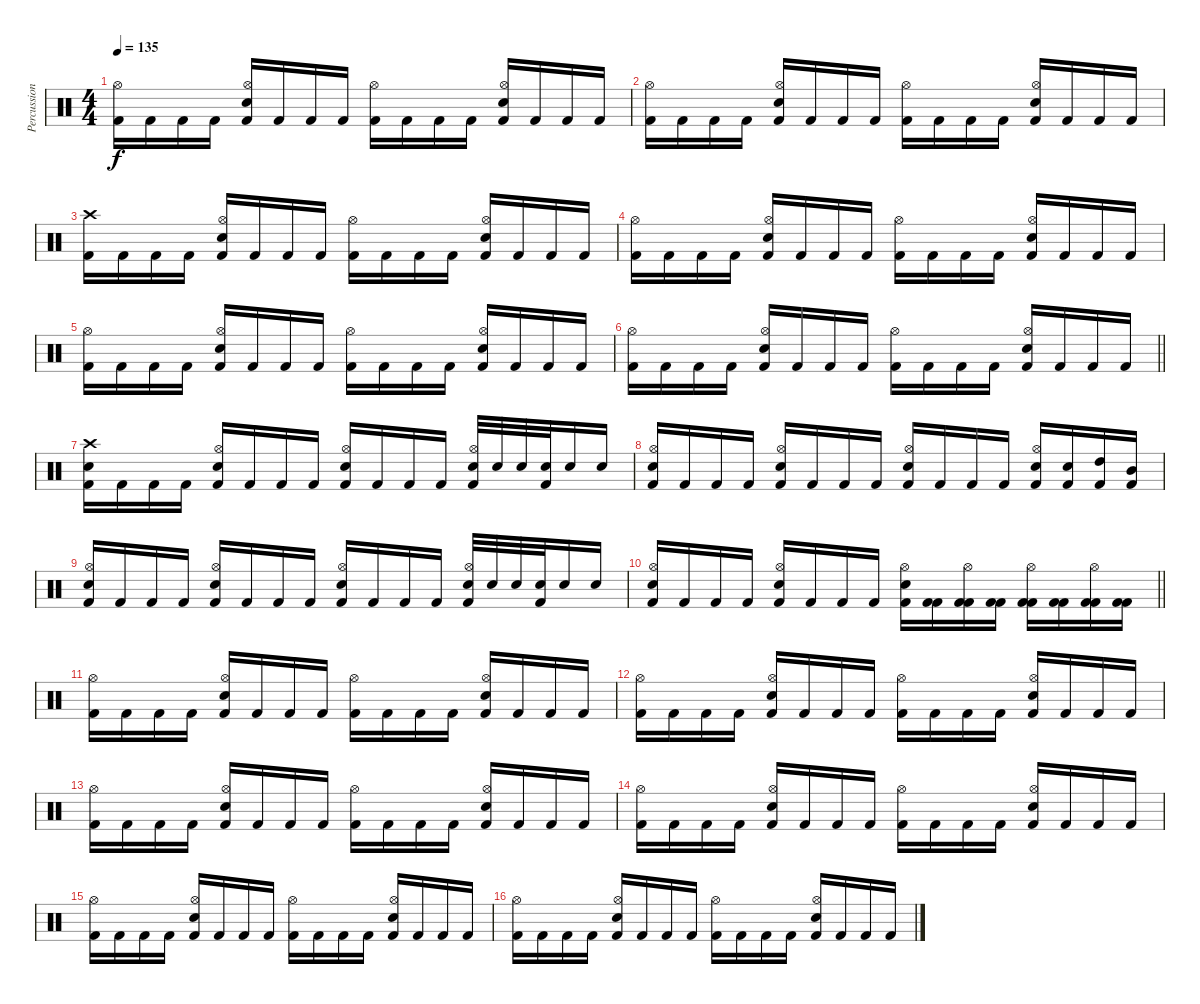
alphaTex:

\track ("Percussion" "Percussion") {instrument percussion}
\staff {score}
\articulation defaults
\ts (4 4)
\tempo 135
\clef neutral
\ks c
("Kick (hit) 2" "Hi-Hat (open)").16{dy f} "Kick (hit) 2".16 "Kick (hit) 2".16 "Kick (hit) 2".16 ("Kick (hit) 2" "Hi-Hat (open)" "Electric Snare (hit)").16 "Kick (hit) 2".16 "Kick (hit) 2".16 "Kick (hit) 2".16 ("Kick (hit) 2" "Hi-Hat (open)").16 "Kick (hit) 2".16 "Kick (hit) 2".16 "Kick (hit) 2".16 ("Kick (hit) 2" "Hi-Hat (open)" "Electric Snare (hit)").16 "Kick (hit) 2".16 "Kick (hit) 2".16 "Kick (hit) 2".16 |
("Kick (hit) 2" "Hi-Hat (open)").16 "Kick (hit) 2".16 "Kick (hit) 2".16 "Kick (hit) 2".16 ("Kick (hit) 2" "Hi-Hat (open)" "Electric Snare (hit)").16 "Kick (hit) 2".16 "Kick (hit) 2".16 "Kick (hit) 2".16 ("Kick (hit) 2" "Hi-Hat (open)").16 "Kick (hit) 2".16 "Kick (hit) 2".16 "Kick (hit) 2".16 ("Kick (hit) 2" "Hi-Hat (open)" "Electric Snare (hit)").16 "Kick (hit) 2".16 "Kick (hit) 2".16 "Kick (hit) 2".16 |
("Kick (hit) 2" "Crash high (hit)").16 "Kick (hit) 2".16 "Kick (hit) 2".16 "Kick (hit) 2".16 ("Kick (hit) 2" "Hi-Hat (open)" "Electric Snare (hit)").16 "Kick (hit) 2".16 "Kick (hit) 2".16 "Kick (hit) 2".16 ("Kick (hit) 2" "Hi-Hat (open)").16 "Kick (hit) 2".16 "Kick (hit) 2".16 "Kick (hit) 2".16 ("Kick (hit) 2" "Hi-Hat (open)" "Electric Snare (hit)").16 "Kick (hit) 2".16 "Kick (hit) 2".16 "Kick (hit) 2".16 |
("Kick (hit) 2" "Hi-Hat (open)").16 "Kick (hit) 2".16 "Kick (hit) 2".16 "Kick (hit) 2".16 ("Kick (hit) 2" "Hi-Hat (open)" "Electric Snare (hit)").16 "Kick (hit) 2".16 "Kick (hit) 2".16 "Kick (hit) 2".16 ("Kick (hit) 2" "Hi-Hat (open)").16 "Kick (hit) 2".16 "Kick (hit) 2".16 "Kick (hit) 2".16 ("Kick (hit) 2" "Hi-Hat (open)" "Electric Snare (hit)").16 "Kick (hit) 2".16 "Kick (hit) 2".16 "Kick (hit) 2".16 |
("Kick (hit) 2" "Hi-Hat (open)").16 "Kick (hit) 2".16 "Kick (hit) 2".16 "Kick (hit) 2".16 ("Kick (hit) 2" "Hi-Hat (open)" "Electric Snare (hit)").16 "Kick (hit) 2".16 "Kick (hit) 2".16 "Kick (hit) 2".16 ("Kick (hit) 2" "Hi-Hat (open)").16 "Kick (hit) 2".16 "Kick (hit) 2".16 "Kick (hit) 2".16 ("Kick (hit) 2" "Hi-Hat (open)" "Electric Snare (hit)").16 "Kick (hit) 2".16 "Kick (hit) 2".16 "Kick (hit) 2".16 |
\barLineRight lightlight
("Kick (hit) 2" "Hi-Hat (open)").16 "Kick (hit) 2".16 "Kick (hit) 2".16 "Kick (hit) 2".16 ("Kick (hit) 2" "Hi-Hat (open)" "Electric Snare (hit)").16 "Kick (hit) 2".16 "Kick (hit) 2".16 "Kick (hit) 2".16 ("Kick (hit) 2" "Hi-Hat (open)").16 "Kick (hit) 2".16 "Kick (hit) 2".16 "Kick (hit) 2".16 ("Kick (hit) 2" "Hi-Hat (open)" "Electric Snare (hit)").16 "Kick (hit) 2".16 "Kick (hit) 2".16 "Kick (hit) 2".16 |
("Kick (hit) 2" "Crash high (hit)" "Electric Snare (hit)").16 "Kick (hit) 2".16 "Kick (hit) 2".16 "Kick (hit) 2".16 ("Kick (hit) 2" "Hi-Hat (open)" "Electric Snare (hit)").16 "Kick (hit) 2".16 "Kick (hit) 2".16 "Kick (hit) 2".16 ("Kick (hit) 2" "Hi-Hat (open)" "Electric Snare (hit)").16 "Kick (hit) 2".16 "Kick (hit) 2".16 "Kick (hit) 2".16 ("Kick (hit) 2" "Hi-Hat (open)" "Electric Snare (hit)").32 "Electric Snare (hit)".32 "Electric Snare (hit)".32 ("Kick (hit) 2" "Electric Snare (hit)").32 "Electric Snare (hit)".16 "Electric Snare (hit)".16 |
("Kick (hit) 2" "Hi-Hat (open)" "Electric Snare (hit)").16 "Kick (hit) 2".16 "Kick (hit) 2".16 "Kick (hit) 2".16 ("Kick (hit) 2" "Hi-Hat (open)" "Electric Snare (hit)").16 "Kick (hit) 2".16 "Kick (hit) 2".16 "Kick (hit) 2".16 ("Kick (hit) 2" "Hi-Hat (open)" "Electric Snare (hit)").16 "Kick (hit) 2".16 "Kick (hit) 2".16 "Kick (hit) 2".16 ("Kick (hit) 2" "Hi-Hat (open)" "Electric Snare (hit)").16 ("Kick (hit) 2" "Electric Snare (hit)").16 ("Kick (hit) 2" "High Tom (hit)").16 ("Kick (hit) 2" "Mid Tom (hit)").16 |
("Kick (hit) 2" "Hi-Hat (open)" "Electric Snare (hit)").16 "Kick (hit) 2".16 "Kick (hit) 2".16 "Kick (hit) 2".16 ("Kick (hit) 2" "Hi-Hat (open)" "Electric Snare (hit)").16 "Kick (hit) 2".16 "Kick (hit) 2".16 "Kick (hit) 2".16 ("Kick (hit) 2" "Hi-Hat (open)" "Electric Snare (hit)").16 "Kick (hit) 2".16 "Kick (hit) 2".16 "Kick (hit) 2".16 ("Kick (hit) 2" "Hi-Hat (open)" "Electric Snare (hit)").32 "Electric Snare (hit)".32 "Electric Snare (hit)".32 ("Kick (hit) 2" "Electric Snare (hit)").32 "Electric Snare (hit)".16 "Electric Snare (hit)".16 |
\barLineRight lightlight
("Kick (hit) 2" "Hi-Hat (open)" "Electric Snare (hit)").16 "Kick (hit) 2".16 "Kick (hit) 2".16 "Kick (hit) 2".16 ("Kick (hit) 2" "Hi-Hat (open)" "Electric Snare (hit)").16 "Kick (hit) 2".16 "Kick (hit) 2".16 "Kick (hit) 2".16 ("Kick (hit) 2" "Hi-Hat (open)" "Electric Snare (hit)").16 ("Kick (hit) 2" "Kick (hit) 2").16 ("Kick (hit) 2" "Hi-Hat (open)" "Kick (hit) 2").16 ("Kick (hit) 2" "Kick (hit) 2").16 ("Kick (hit) 2" "Hi-Hat (open)" "Kick (hit) 2").16 ("Kick (hit) 2" "Kick (hit) 2").16 ("Kick (hit) 2" "Hi-Hat (open)" "Kick (hit) 2").16 ("Kick (hit) 2" "Kick (hit) 2").16 |
("Kick (hit) 2" "Hi-Hat (open)").16 "Kick (hit) 2".16 "Kick (hit) 2".16 "Kick (hit) 2".16 ("Kick (hit) 2" "Hi-Hat (open)" "Electric Snare (hit)").16 "Kick (hit) 2".16 "Kick (hit) 2".16 "Kick (hit) 2".16 ("Kick (hit) 2" "Hi-Hat (open)").16 "Kick (hit) 2".16 "Kick (hit) 2".16 "Kick (hit) 2".16 ("Kick (hit) 2" "Hi-Hat (open)" "Electric Snare (hit)").16 "Kick (hit) 2".16 "Kick (hit) 2".16 "Kick (hit) 2".16 |
("Kick (hit) 2" "Hi-Hat (open)").16 "Kick (hit) 2".16 "Kick (hit) 2".16 "Kick (hit) 2".16 ("Kick (hit) 2" "Hi-Hat (open)" "Electric Snare (hit)").16 "Kick (hit) 2".16 "Kick (hit) 2".16 "Kick (hit) 2".16 ("Kick (hit) 2" "Hi-Hat (open)").16 "Kick (hit) 2".16 "Kick (hit) 2".16 "Kick (hit) 2".16 ("Kick (hit) 2" "Hi-Hat (open)" "Electric Snare (hit)").16 "Kick (hit) 2".16 "Kick (hit) 2".16 "Kick (hit) 2".16 |
("Kick (hit) 2" "Hi-Hat (open)").16 "Kick (hit) 2".16 "Kick (hit) 2".16 "Kick (hit) 2".16 ("Kick (hit) 2" "Hi-Hat (open)" "Electric Snare (hit)").16 "Kick (hit) 2".16 "Kick (hit) 2".16 "Kick (hit) 2".16 ("Kick (hit) 2" "Hi-Hat (open)").16 "Kick (hit) 2".16 "Kick (hit) 2".16 "Kick (hit) 2".16 ("Kick (hit) 2" "Hi-Hat (open)" "Electric Snare (hit)").16 "Kick (hit) 2".16 "Kick (hit) 2".16 "Kick (hit) 2".16 |
("Kick (hit) 2" "Hi-Hat (open)").16 "Kick (hit) 2".16 "Kick (hit) 2".16 "Kick (hit) 2".16 ("Kick (hit) 2" "Hi-Hat (open)" "Electric Snare (hit)").16 "Kick (hit) 2".16 "Kick (hit) 2".16 "Kick (hit) 2".16 ("Kick (hit) 2" "Hi-Hat (open)").16 "Kick (hit) 2".16 "Kick (hit) 2".16 "Kick (hit) 2".16 ("Kick (hit) 2" "Hi-Hat (open)" "Electric Snare (hit)").16 "Kick (hit) 2".16 "Kick (hit) 2".16 "Kick (hit) 2".16 |
("Kick (hit) 2" "Hi-Hat (open)").16 "Kick (hit) 2".16 "Kick (hit) 2".16 "Kick (hit) 2".16 ("Kick (hit) 2" "Hi-Hat (open)" "Electric Snare (hit)").16 "Kick (hit) 2".16 "Kick (hit) 2".16 "Kick (hit) 2".16 ("Kick (hit) 2" "Hi-Hat (open)").16 "Kick (hit) 2".16 "Kick (hit) 2".16 "Kick (hit) 2".16 ("Kick (hit) 2" "Hi-Hat (open)" "Electric Snare (hit)").16 "Kick (hit) 2".16 "Kick (hit) 2".16 "Kick (hit) 2".16 |
("Kick (hit) 2" "Hi-Hat (open)").16 "Kick (hit) 2".16 "Kick (hit) 2".16 "Kick (hit) 2".16 ("Kick (hit) 2" "Hi-Hat (open)" "Electric Snare (hit)").16 "Kick (hit) 2".16 "Kick (hit) 2".16 "Kick (hit) 2".16 ("Kick (hit) 2" "Hi-Hat (open)").16 "Kick (hit) 2".16 "Kick (hit) 2".16 "Kick (hit) 2".16 ("Kick (hit) 2" "Hi-Hat (open)" "Electric Snare (hit)").16 "Kick (hit) 2".16 "Kick (hit) 2".16 "Kick (hit) 2".16
